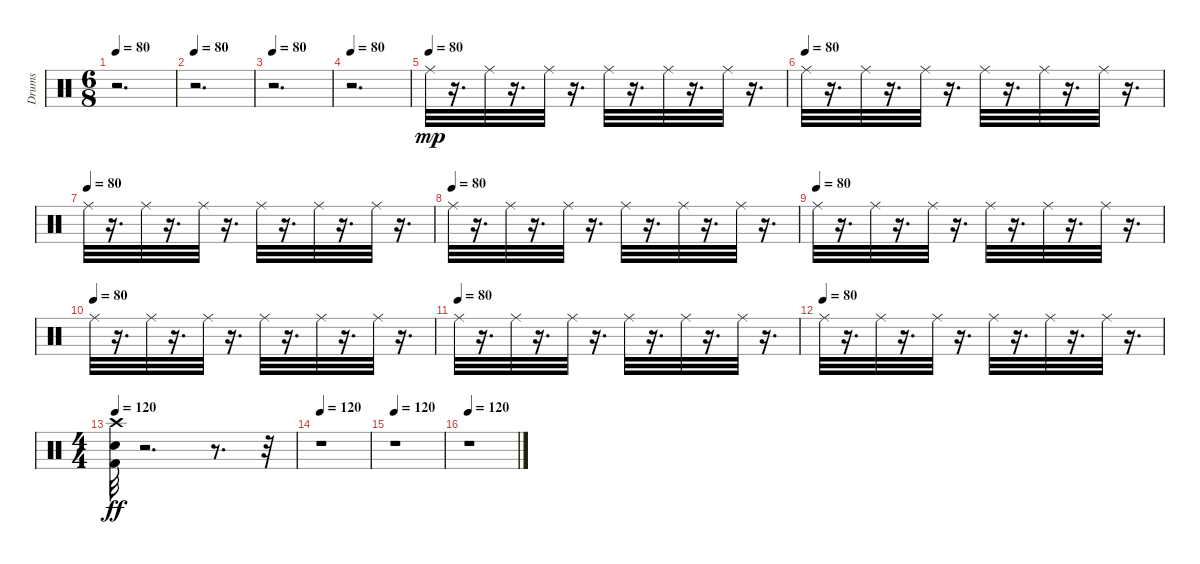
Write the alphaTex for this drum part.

\track ("Drums" "Drums") {instrument percussion}
\staff {score}
\articulation defaults
\ts (6 8)
\tempo 80
\clef neutral
\ks c
r.2{d dy mp} |
\tempo 80
r.2{d} |
\tempo 80
r.2{d} |
\tempo 80
r.2{d} |
\tempo (80)
"Ride (middle)".32 r.16{d} "Ride (middle)".32 r.16{d} "Ride (middle)".32 r.16{d} "Ride (middle)".32 r.16{d} "Ride (middle)".32 r.16{d} "Ride (middle)".32 r.16{d} |
\tempo (80)
"Ride (middle)".32 r.16{d} "Ride (middle)".32 r.16{d} "Ride (middle)".32 r.16{d} "Ride (middle)".32 r.16{d} "Ride (middle)".32 r.16{d} "Ride (middle)".32 r.16{d} |
\tempo (80)
"Ride (middle)".32 r.16{d} "Ride (middle)".32 r.16{d} "Ride (middle)".32 r.16{d} "Ride (middle)".32 r.16{d} "Ride (middle)".32 r.16{d} "Ride (middle)".32 r.16{d} |
\tempo (80)
"Ride (middle)".32 r.16{d} "Ride (middle)".32 r.16{d} "Ride (middle)".32 r.16{d} "Ride (middle)".32 r.16{d} "Ride (middle)".32 r.16{d} "Ride (middle)".32 r.16{d} |
\tempo (80)
"Ride (middle)".32 r.16{d} "Ride (middle)".32 r.16{d} "Ride (middle)".32 r.16{d} "Ride (middle)".32 r.16{d} "Ride (middle)".32 r.16{d} "Ride (middle)".32 r.16{d} |
\tempo (80)
"Ride (middle)".32 r.16{d} "Ride (middle)".32 r.16{d} "Ride (middle)".32 r.16{d} "Ride (middle)".32 r.16{d} "Ride (middle)".32 r.16{d} "Ride (middle)".32 r.16{d} |
\tempo (80)
"Ride (middle)".32 r.16{d} "Ride (middle)".32 r.16{d} "Ride (middle)".32 r.16{d} "Ride (middle)".32 r.16{d} "Ride (middle)".32 r.16{d} "Ride (middle)".32 r.16{d} |
\tempo (80)
"Ride (middle)".32 r.16{d} "Ride (middle)".32 r.16{d} "Ride (middle)".32 r.16{d} "Ride (middle)".32 r.16{d} "Ride (middle)".32 r.16{d} "Ride (middle)".32 r.16{d} |
\ts (4 4)
\tempo 120
("Kick (hit) 2" "Snare (hit) 2" "Crash high (hit)").32{dy ff} r.2{d} r.8{d} r.32 |
\tempo 120
r.1 |
\tempo 120
r.1 |
\tempo 120
r.1
